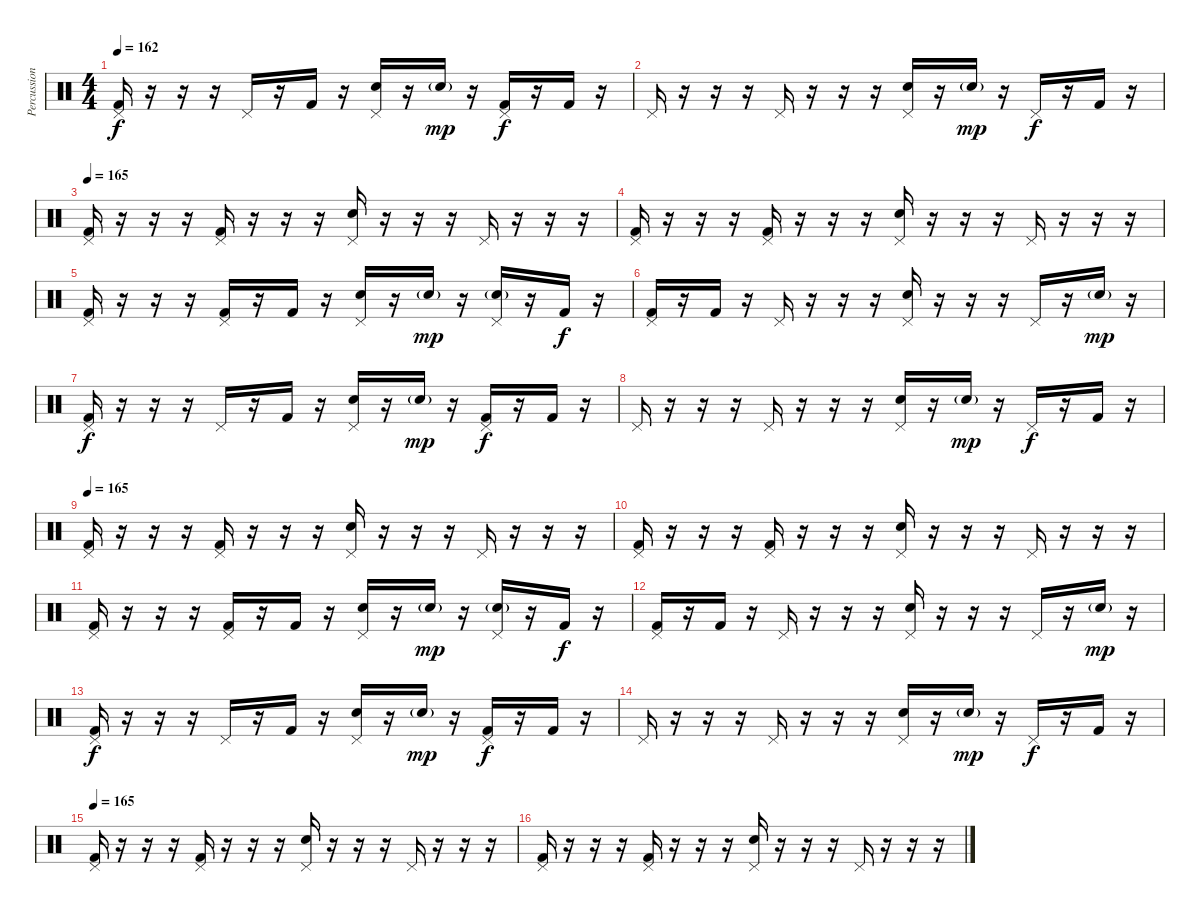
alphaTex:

\track ("Percussion" "Percussion") {instrument percussion}
\staff {score}
\articulation defaults
\ts (4 4)
\tempo 162
\clef neutral
\ks c
("Pedal Hi-Hat (hit)" "Kick (hit) 2").16{dy f} r.16 r.16 r.16 "Pedal Hi-Hat (hit)".16 r.16 "Kick (hit) 2".16 r.16 ("Pedal Hi-Hat (hit)" "Snare (hit) 2").16 r.16 "Snare (hit) 2"{g}.16{dy mp} r.16 ("Pedal Hi-Hat (hit)" "Kick (hit) 2").16{dy f} r.16 "Kick (hit) 2".16 r.16 |
"Pedal Hi-Hat (hit)".16 r.16 r.16 r.16 "Pedal Hi-Hat (hit)".16 r.16 r.16 r.16 ("Pedal Hi-Hat (hit)" "Snare (hit) 2").16 r.16 "Snare (hit) 2"{g}.16{dy mp} r.16 "Pedal Hi-Hat (hit)".16{dy f} r.16 "Kick (hit) 2".16 r.16 |
\tempo 165
("Pedal Hi-Hat (hit)" "Kick (hit) 2").16 r.16 r.16 r.16 ("Pedal Hi-Hat (hit)" "Kick (hit) 2").16 r.16 r.16 r.16 ("Pedal Hi-Hat (hit)" "Snare (hit) 2").16 r.16 r.16 r.16 "Pedal Hi-Hat (hit)".16 r.16 r.16 r.16 |
("Pedal Hi-Hat (hit)" "Kick (hit) 2").16 r.16 r.16 r.16 ("Pedal Hi-Hat (hit)" "Kick (hit) 2").16 r.16 r.16 r.16 ("Pedal Hi-Hat (hit)" "Snare (hit) 2").16 r.16 r.16 r.16 "Pedal Hi-Hat (hit)".16 r.16 r.16 r.16 |
("Pedal Hi-Hat (hit)" "Kick (hit) 2").16 r.16 r.16 r.16 ("Pedal Hi-Hat (hit)" "Kick (hit) 2").16 r.16 "Kick (hit) 2".16 r.16 ("Pedal Hi-Hat (hit)" "Snare (hit) 2").16 r.16 "Snare (hit) 2"{g}.16{dy mp} r.16 ("Pedal Hi-Hat (hit)" "Snare (hit) 2"{g}).16 r.16 "Kick (hit) 2".16{dy f} r.16 |
("Pedal Hi-Hat (hit)" "Kick (hit) 2").16 r.16 "Kick (hit) 2".16 r.16 "Pedal Hi-Hat (hit)".16 r.16 r.16 r.16 ("Pedal Hi-Hat (hit)" "Snare (hit) 2").16 r.16 r.16 r.16 "Pedal Hi-Hat (hit)".16 r.16 "Snare (hit) 2"{g}.16{dy mp} r.16 |
("Pedal Hi-Hat (hit)" "Kick (hit) 2").16{dy f} r.16 r.16 r.16 "Pedal Hi-Hat (hit)".16 r.16 "Kick (hit) 2".16 r.16 ("Pedal Hi-Hat (hit)" "Snare (hit) 2").16 r.16 "Snare (hit) 2"{g}.16{dy mp} r.16 ("Pedal Hi-Hat (hit)" "Kick (hit) 2").16{dy f} r.16 "Kick (hit) 2".16 r.16 |
"Pedal Hi-Hat (hit)".16 r.16 r.16 r.16 "Pedal Hi-Hat (hit)".16 r.16 r.16 r.16 ("Pedal Hi-Hat (hit)" "Snare (hit) 2").16 r.16 "Snare (hit) 2"{g}.16{dy mp} r.16 "Pedal Hi-Hat (hit)".16{dy f} r.16 "Kick (hit) 2".16 r.16 |
\tempo 165
("Pedal Hi-Hat (hit)" "Kick (hit) 2").16 r.16 r.16 r.16 ("Pedal Hi-Hat (hit)" "Kick (hit) 2").16 r.16 r.16 r.16 ("Pedal Hi-Hat (hit)" "Snare (hit) 2").16 r.16 r.16 r.16 "Pedal Hi-Hat (hit)".16 r.16 r.16 r.16 |
("Pedal Hi-Hat (hit)" "Kick (hit) 2").16 r.16 r.16 r.16 ("Pedal Hi-Hat (hit)" "Kick (hit) 2").16 r.16 r.16 r.16 ("Pedal Hi-Hat (hit)" "Snare (hit) 2").16 r.16 r.16 r.16 "Pedal Hi-Hat (hit)".16 r.16 r.16 r.16 |
("Pedal Hi-Hat (hit)" "Kick (hit) 2").16 r.16 r.16 r.16 ("Pedal Hi-Hat (hit)" "Kick (hit) 2").16 r.16 "Kick (hit) 2".16 r.16 ("Pedal Hi-Hat (hit)" "Snare (hit) 2").16 r.16 "Snare (hit) 2"{g}.16{dy mp} r.16 ("Pedal Hi-Hat (hit)" "Snare (hit) 2"{g}).16 r.16 "Kick (hit) 2".16{dy f} r.16 |
("Pedal Hi-Hat (hit)" "Kick (hit) 2").16 r.16 "Kick (hit) 2".16 r.16 "Pedal Hi-Hat (hit)".16 r.16 r.16 r.16 ("Pedal Hi-Hat (hit)" "Snare (hit) 2").16 r.16 r.16 r.16 "Pedal Hi-Hat (hit)".16 r.16 "Snare (hit) 2"{g}.16{dy mp} r.16 |
("Pedal Hi-Hat (hit)" "Kick (hit) 2").16{dy f} r.16 r.16 r.16 "Pedal Hi-Hat (hit)".16 r.16 "Kick (hit) 2".16 r.16 ("Pedal Hi-Hat (hit)" "Snare (hit) 2").16 r.16 "Snare (hit) 2"{g}.16{dy mp} r.16 ("Pedal Hi-Hat (hit)" "Kick (hit) 2").16{dy f} r.16 "Kick (hit) 2".16 r.16 |
"Pedal Hi-Hat (hit)".16 r.16 r.16 r.16 "Pedal Hi-Hat (hit)".16 r.16 r.16 r.16 ("Pedal Hi-Hat (hit)" "Snare (hit) 2").16 r.16 "Snare (hit) 2"{g}.16{dy mp} r.16 "Pedal Hi-Hat (hit)".16{dy f} r.16 "Kick (hit) 2".16 r.16 |
\tempo 165
("Pedal Hi-Hat (hit)" "Kick (hit) 2").16 r.16 r.16 r.16 ("Pedal Hi-Hat (hit)" "Kick (hit) 2").16 r.16 r.16 r.16 ("Pedal Hi-Hat (hit)" "Snare (hit) 2").16 r.16 r.16 r.16 "Pedal Hi-Hat (hit)".16 r.16 r.16 r.16 |
("Pedal Hi-Hat (hit)" "Kick (hit) 2").16 r.16 r.16 r.16 ("Pedal Hi-Hat (hit)" "Kick (hit) 2").16 r.16 r.16 r.16 ("Pedal Hi-Hat (hit)" "Snare (hit) 2").16 r.16 r.16 r.16 "Pedal Hi-Hat (hit)".16 r.16 r.16 r.16
